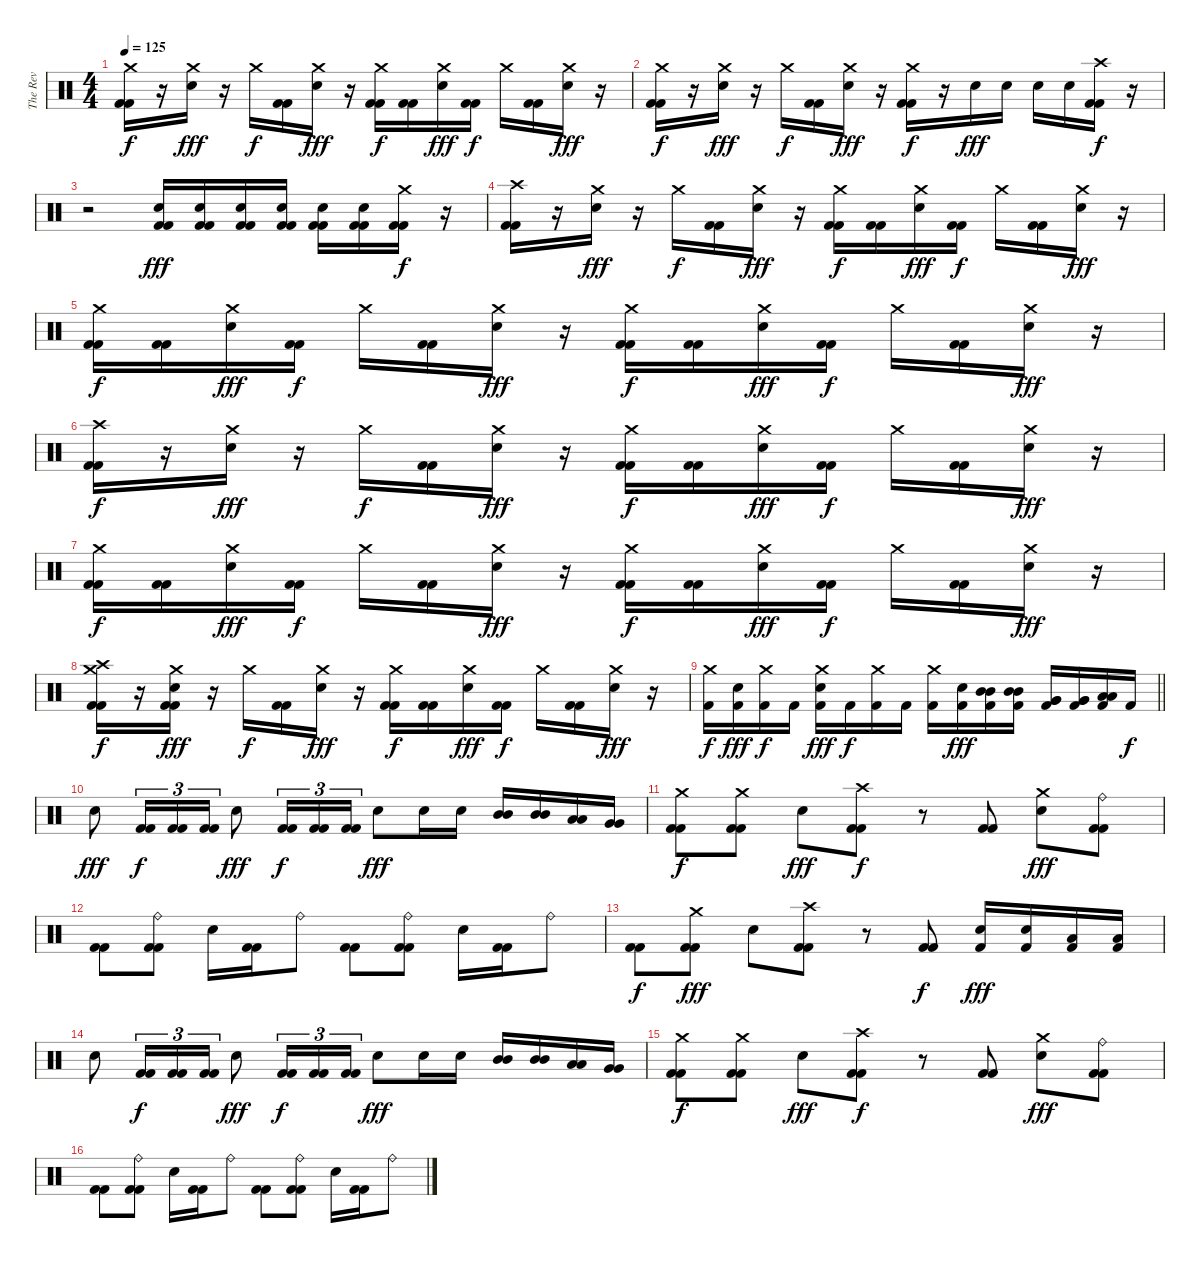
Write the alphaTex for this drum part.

\track ("The Rev" "The Rev") {mute instrument percussion}
\staff {score}
\articulation defaults
\ts (4 4)
\tempo 125
\clef neutral
\ks c
("Crash medium (hit)" "Kick (hit) 2" "Kick (hit) 2").16{dy f} r.16 ("Crash medium (hit)" "Electric Snare (hit)").16{dy fff} r.16 "Crash medium (hit)".16{dy f} ("Kick (hit) 2" "Kick (hit) 2").16 ("Crash medium (hit)" "Electric Snare (hit)").16{dy fff} r.16 ("Crash medium (hit)" "Kick (hit) 2" "Kick (hit) 2").16{dy f} ("Kick (hit) 2" "Kick (hit) 2").16 ("Crash medium (hit)" "Electric Snare (hit)").16{dy fff} ("Kick (hit) 2" "Kick (hit) 2").16{dy f} "Crash medium (hit)".16 ("Kick (hit) 2" "Kick (hit) 2").16 ("Crash medium (hit)" "Electric Snare (hit)").16{dy fff} r.16 |
("Crash medium (hit)" "Kick (hit) 2" "Kick (hit) 2").16{dy f} r.16 ("Crash medium (hit)" "Electric Snare (hit)").16{dy fff} r.16 "Crash medium (hit)".16{dy f} ("Kick (hit) 2" "Kick (hit) 2").16 ("Crash medium (hit)" "Electric Snare (hit)").16{dy fff} r.16 ("Crash medium (hit)" "Kick (hit) 2" "Kick (hit) 2").16{dy f} r.16 "Electric Snare (hit)".16{dy fff} "Electric Snare (hit)".16 "Electric Snare (hit)".16 "Electric Snare (hit)".16 ("Crash high (hit)" "Kick (hit) 2" "Kick (hit) 2").16{dy f} r.16 |
r.2 ("Electric Snare (hit)" "Kick (hit) 2" "Kick (hit) 2").16{dy fff} ("Electric Snare (hit)" "Kick (hit) 2" "Kick (hit) 2").16 ("Electric Snare (hit)" "Kick (hit) 2" "Kick (hit) 2").16 ("Electric Snare (hit)" "Kick (hit) 2" "Kick (hit) 2").16 ("Electric Snare (hit)" "Kick (hit) 2" "Kick (hit) 2").16 ("Electric Snare (hit)" "Kick (hit) 2" "Kick (hit) 2").16 ("Crash medium (hit)" "Kick (hit) 2" "Kick (hit) 2").16{dy f} r.16 |
("Crash high (hit)" "Kick (hit) 2" "Kick (hit) 2").16 r.16 ("Crash medium (hit)" "Electric Snare (hit)").16{dy fff} r.16 "Crash medium (hit)".16{dy f} ("Kick (hit) 2" "Kick (hit) 2").16 ("Crash medium (hit)" "Electric Snare (hit)").16{dy fff} r.16 ("Crash medium (hit)" "Kick (hit) 2" "Kick (hit) 2").16{dy f} ("Kick (hit) 2" "Kick (hit) 2").16 ("Crash medium (hit)" "Electric Snare (hit)").16{dy fff} ("Kick (hit) 2" "Kick (hit) 2").16{dy f} "Crash medium (hit)".16 ("Kick (hit) 2" "Kick (hit) 2").16 ("Crash medium (hit)" "Electric Snare (hit)").16{dy fff} r.16 |
("Crash medium (hit)" "Kick (hit) 2" "Kick (hit) 2").16{dy f} ("Kick (hit) 2" "Kick (hit) 2").16 ("Crash medium (hit)" "Electric Snare (hit)").16{dy fff} ("Kick (hit) 2" "Kick (hit) 2").16{dy f} "Crash medium (hit)".16 ("Kick (hit) 2" "Kick (hit) 2").16 ("Crash medium (hit)" "Electric Snare (hit)").16{dy fff} r.16 ("Crash medium (hit)" "Kick (hit) 2" "Kick (hit) 2").16{dy f} ("Kick (hit) 2" "Kick (hit) 2").16 ("Crash medium (hit)" "Electric Snare (hit)").16{dy fff} ("Kick (hit) 2" "Kick (hit) 2").16{dy f} "Crash medium (hit)".16 ("Kick (hit) 2" "Kick (hit) 2").16 ("Crash medium (hit)" "Electric Snare (hit)").16{dy fff} r.16 |
("Crash high (hit)" "Kick (hit) 2" "Kick (hit) 2").16{dy f} r.16 ("Crash medium (hit)" "Electric Snare (hit)").16{dy fff} r.16 "Crash medium (hit)".16{dy f} ("Kick (hit) 2" "Kick (hit) 2").16 ("Crash medium (hit)" "Electric Snare (hit)").16{dy fff} r.16 ("Crash medium (hit)" "Kick (hit) 2" "Kick (hit) 2").16{dy f} ("Kick (hit) 2" "Kick (hit) 2").16 ("Crash medium (hit)" "Electric Snare (hit)").16{dy fff} ("Kick (hit) 2" "Kick (hit) 2").16{dy f} "Crash medium (hit)".16 ("Kick (hit) 2" "Kick (hit) 2").16 ("Crash medium (hit)" "Electric Snare (hit)").16{dy fff} r.16 |
("Crash medium (hit)" "Kick (hit) 2" "Kick (hit) 2").16{dy f} ("Kick (hit) 2" "Kick (hit) 2").16 ("Crash medium (hit)" "Electric Snare (hit)").16{dy fff} ("Kick (hit) 2" "Kick (hit) 2").16{dy f} "Crash medium (hit)".16 ("Kick (hit) 2" "Kick (hit) 2").16 ("Crash medium (hit)" "Electric Snare (hit)").16{dy fff} r.16 ("Crash medium (hit)" "Kick (hit) 2" "Kick (hit) 2").16{dy f} ("Kick (hit) 2" "Kick (hit) 2").16 ("Crash medium (hit)" "Electric Snare (hit)").16{dy fff} ("Kick (hit) 2" "Kick (hit) 2").16{dy f} "Crash medium (hit)".16 ("Kick (hit) 2" "Kick (hit) 2").16 ("Crash medium (hit)" "Electric Snare (hit)").16{dy fff} r.16 |
("Crash high (hit)" "Crash medium (hit)" "Kick (hit) 2" "Kick (hit) 2").16{dy f} r.16 ("Crash medium (hit)" "Electric Snare (hit)" "Kick (hit) 2" "Kick (hit) 2").16{dy fff} r.16 "Crash medium (hit)".16{dy f} ("Kick (hit) 2" "Kick (hit) 2").16 ("Crash medium (hit)" "Electric Snare (hit)").16{dy fff} r.16 ("Crash medium (hit)" "Kick (hit) 2" "Kick (hit) 2").16{dy f} ("Kick (hit) 2" "Kick (hit) 2").16 ("Crash medium (hit)" "Electric Snare (hit)").16{dy fff} ("Kick (hit) 2" "Kick (hit) 2").16{dy f} "Crash medium (hit)".16 ("Kick (hit) 2" "Kick (hit) 2").16 ("Crash medium (hit)" "Electric Snare (hit)").16{dy fff} r.16 |
\barLineRight lightlight
("Crash medium (hit)" "Kick (hit) 2").16{dy f} ("Electric Snare (hit)" "Kick (hit) 2").16{dy fff} ("Crash medium (hit)" "Kick (hit) 2").16{dy f} "Kick (hit) 2".16 ("Crash medium (hit)" "Electric Snare (hit)" "Kick (hit) 2").16{dy fff} "Kick (hit) 2".16{dy f} ("Crash medium (hit)" "Kick (hit) 2").16 "Kick (hit) 2".16 ("Crash medium (hit)" "Kick (hit) 2").16 ("Electric Snare (hit)" "Kick (hit) 2").16{dy fff} ("Mid Tom (hit)" "Mid Tom (hit)" "Kick (hit) 2").16 ("Mid Tom (hit)" "Mid Tom (hit)" "Kick (hit) 2").16 ("Very Low Tom (hit)" "Very Low Tom (hit)" "Kick (hit) 2").16 ("Very Low Tom (hit)" "Very Low Tom (hit)" "Kick (hit) 2").16 ("Low Floor Tom (hit)" "Low Floor Tom (hit)" "Kick (hit) 2").16 "Kick (hit) 2".16{dy f} |
"Electric Snare (hit)".8{dy fff} ("Kick (hit) 2" "Kick (hit) 2").16{tu (3 2) dy f} ("Kick (hit) 2" "Kick (hit) 2").16{tu (3 2)} ("Kick (hit) 2" "Kick (hit) 2").16{tu (3 2)} "Electric Snare (hit)".8{dy fff} ("Kick (hit) 2" "Kick (hit) 2").16{tu (3 2) dy f} ("Kick (hit) 2" "Kick (hit) 2").16{tu (3 2)} ("Kick (hit) 2" "Kick (hit) 2").16{tu (3 2)} "Electric Snare (hit)".8{dy fff} "Electric Snare (hit)".16 "Electric Snare (hit)".16 ("Mid Tom (hit)" "Mid Tom (hit)").16 ("Mid Tom (hit)" "Mid Tom (hit)").16 ("Low Tom (hit)" "Low Tom (hit)").16 ("Very Low Tom (hit)" "Very Low Tom (hit)").16 |
("Crash medium (hit)" "Kick (hit) 2" "Kick (hit) 2").8{dy f} ("Crash medium (hit)" "Kick (hit) 2" "Kick (hit) 2").8 "Electric Snare (hit)".8{dy fff} ("Crash high (hit)" "Kick (hit) 2" "Kick (hit) 2").8{dy f} r.8 ("Kick (hit) 2" "Kick (hit) 2").8 ("Crash medium (hit)" "Electric Snare (hit)").8{dy fff} ("Ride (bell)" "Kick (hit) 2" "Kick (hit) 2").8 |
("Kick (hit) 2" "Kick (hit) 2").8 ("Ride (bell)" "Kick (hit) 2" "Kick (hit) 2").8 "Electric Snare (hit)".16 ("Kick (hit) 2" "Kick (hit) 2").16 "Ride (bell)".8 ("Kick (hit) 2" "Kick (hit) 2").8 ("Ride (bell)" "Kick (hit) 2" "Kick (hit) 2").8 "Electric Snare (hit)".16 ("Kick (hit) 2" "Kick (hit) 2").16 "Ride (bell)".8 |
("Kick (hit) 2" "Kick (hit) 2").8{dy f} ("Crash medium (hit)" "Kick (hit) 2" "Kick (hit) 2").8{dy fff} "Electric Snare (hit)".8 ("Crash high (hit)" "Kick (hit) 2" "Kick (hit) 2").8 r.8 ("Kick (hit) 2" "Kick (hit) 2").8{dy f} ("Electric Snare (hit)" "Kick (hit) 2").16{dy fff} ("Electric Snare (hit)" "Kick (hit) 2").16 ("Low Tom (hit)" "Kick (hit) 2").16 ("Low Tom (hit)" "Kick (hit) 2").16 |
"Electric Snare (hit)".8 ("Kick (hit) 2" "Kick (hit) 2").16{tu (3 2) dy f} ("Kick (hit) 2" "Kick (hit) 2").16{tu (3 2)} ("Kick (hit) 2" "Kick (hit) 2").16{tu (3 2)} "Electric Snare (hit)".8{dy fff} ("Kick (hit) 2" "Kick (hit) 2").16{tu (3 2) dy f} ("Kick (hit) 2" "Kick (hit) 2").16{tu (3 2)} ("Kick (hit) 2" "Kick (hit) 2").16{tu (3 2)} "Electric Snare (hit)".8{dy fff} "Electric Snare (hit)".16 "Electric Snare (hit)".16 ("Mid Tom (hit)" "Mid Tom (hit)").16 ("Mid Tom (hit)" "Mid Tom (hit)").16 ("Low Tom (hit)" "Low Tom (hit)").16 ("Very Low Tom (hit)" "Very Low Tom (hit)").16 |
("Crash medium (hit)" "Kick (hit) 2" "Kick (hit) 2").8{dy f} ("Crash medium (hit)" "Kick (hit) 2" "Kick (hit) 2").8 "Electric Snare (hit)".8{dy fff} ("Crash high (hit)" "Kick (hit) 2" "Kick (hit) 2").8{dy f} r.8 ("Kick (hit) 2" "Kick (hit) 2").8 ("Crash medium (hit)" "Electric Snare (hit)").8{dy fff} ("Ride (bell)" "Kick (hit) 2" "Kick (hit) 2").8 |
("Kick (hit) 2" "Kick (hit) 2").8 ("Ride (bell)" "Kick (hit) 2" "Kick (hit) 2").8 "Electric Snare (hit)".16 ("Kick (hit) 2" "Kick (hit) 2").16 "Ride (bell)".8 ("Kick (hit) 2" "Kick (hit) 2").8 ("Ride (bell)" "Kick (hit) 2" "Kick (hit) 2").8 "Electric Snare (hit)".16 ("Kick (hit) 2" "Kick (hit) 2").16 "Ride (bell)".8
